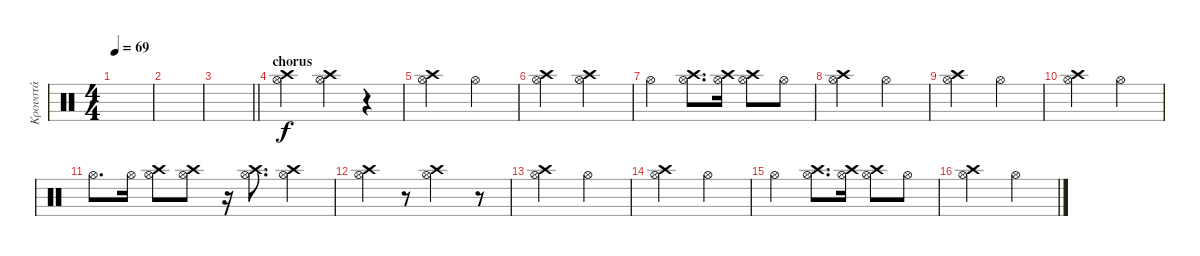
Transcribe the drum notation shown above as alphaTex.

\track ("Κρουστά" "Κρουστά") {instrument percussion}
\staff {score}
\articulation defaults
\ts (4 4)
\tempo 69
\clef neutral
\ks c
|
|
\barLineRight lightlight
|
\section ("" "chorus")
("Crash high (hit)" "Hi-Hat (open)").2 ("Hi-Hat (open)" "Crash high (hit)").4 r.4 |
("Hi-Hat (open)" "Crash high (hit)").2 "Hi-Hat (open)".2 |
("Hi-Hat (open)" "Crash high (hit)").2 ("Hi-Hat (open)" "Crash high (hit)").2 |
"Hi-Hat (open)".2 ("Crash high (hit)" "Hi-Hat (open)").8{d} ("Hi-Hat (open)" "Crash high (hit)").16 ("Hi-Hat (open)" "Crash high (hit)").8 "Hi-Hat (open)".8 |
("Hi-Hat (open)" "Crash high (hit)").2 "Hi-Hat (open)".2 |
("Crash high (hit)" "Hi-Hat (open)").2 "Hi-Hat (open)".2 |
("Crash high (hit)" "Hi-Hat (open)").2 "Hi-Hat (open)".2 |
"Hi-Hat (open)".8{d} "Hi-Hat (open)".16 ("Hi-Hat (open)" "Crash high (hit)").8 ("Hi-Hat (open)" "Crash high (hit)").8 r.16 ("Hi-Hat (open)" "Crash high (hit)").8{d} ("Hi-Hat (open)" "Crash high (hit)").4 |
("Crash high (hit)" "Hi-Hat (open)").4 r.8 ("Hi-Hat (open)" "Crash high (hit)").2 r.8 |
("Hi-Hat (open)" "Crash high (hit)").2 "Hi-Hat (open)".2 |
("Hi-Hat (open)" "Crash high (hit)").2 "Hi-Hat (open)".2 |
"Hi-Hat (open)".2 ("Crash high (hit)" "Hi-Hat (open)").8{d} ("Hi-Hat (open)" "Crash high (hit)").16 ("Hi-Hat (open)" "Crash high (hit)").8 "Hi-Hat (open)".8 |
("Hi-Hat (open)" "Crash high (hit)").2 "Hi-Hat (open)".2
